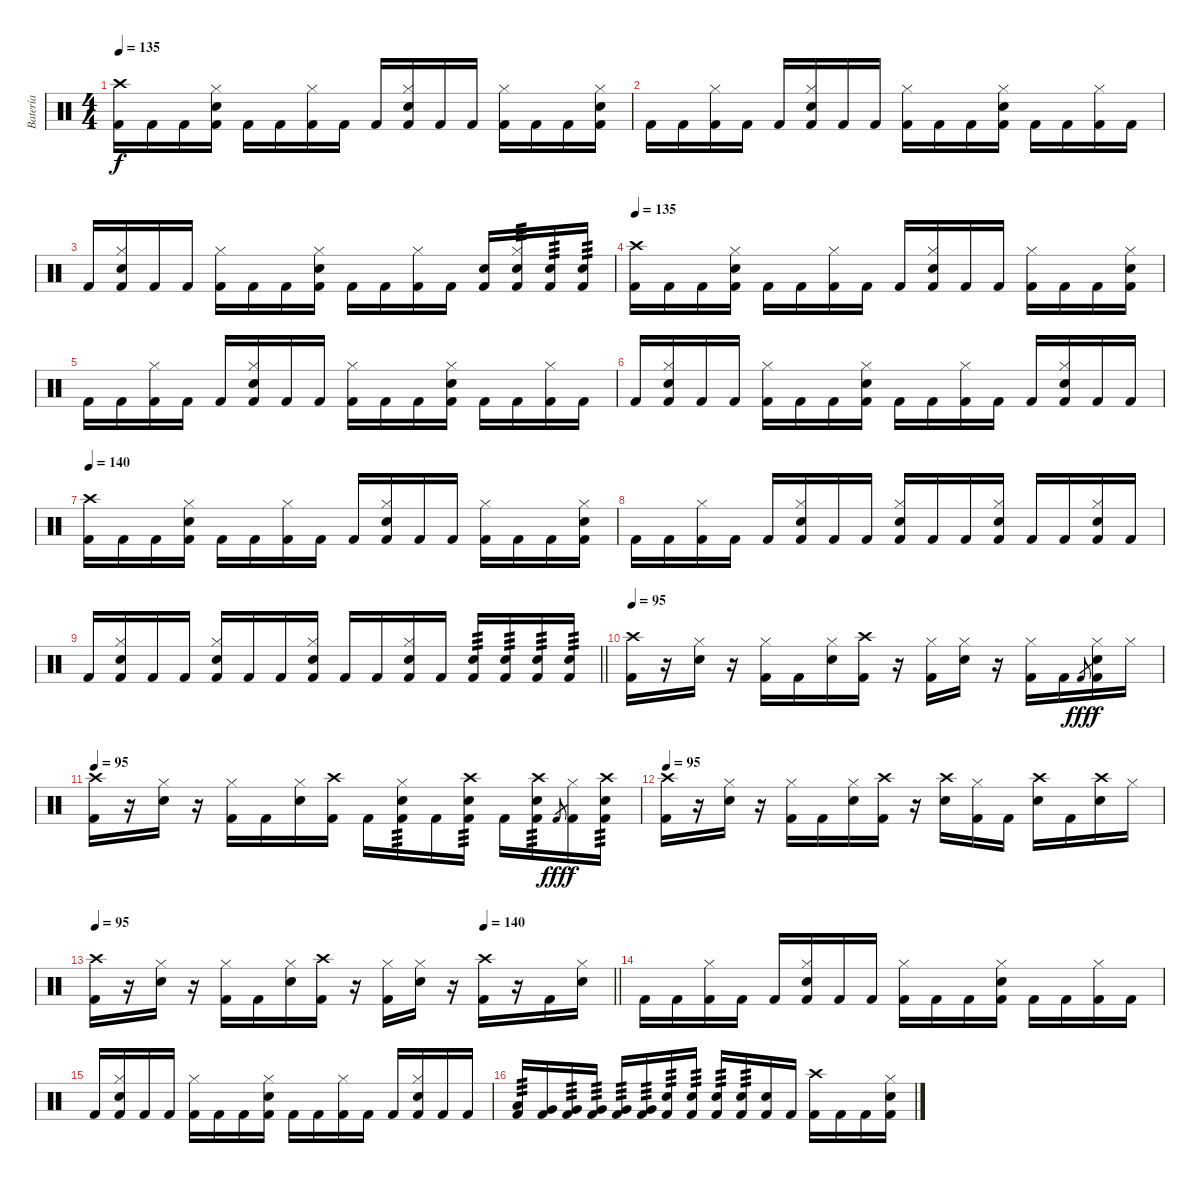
\track ("Batería" "Batería") {instrument percussion}
\staff {score}
\articulation defaults
\ts (4 4)
\tempo 135
\clef neutral
\ks c
("Crash high (hit)" "Kick (hit) 2").16{dy f} "Kick (hit) 2".16 "Kick (hit) 2".16 ("Hi-Hat (closed)" "Snare (hit) 2" "Kick (hit) 2").16 "Kick (hit) 2".16 "Kick (hit) 2".16 ("Hi-Hat (closed)" "Kick (hit) 2").16 "Kick (hit) 2".16 "Kick (hit) 2".16 ("Hi-Hat (closed)" "Snare (hit) 2" "Kick (hit) 2").16 "Kick (hit) 2".16 "Kick (hit) 2".16 ("Hi-Hat (closed)" "Kick (hit) 2").16 "Kick (hit) 2".16 "Kick (hit) 2".16 ("Hi-Hat (closed)" "Snare (hit) 2" "Kick (hit) 2").16 |
"Kick (hit) 2".16 "Kick (hit) 2".16 ("Hi-Hat (closed)" "Kick (hit) 2").16 "Kick (hit) 2".16 "Kick (hit) 2".16 ("Hi-Hat (closed)" "Snare (hit) 2" "Kick (hit) 2").16 "Kick (hit) 2".16 "Kick (hit) 2".16 ("Hi-Hat (closed)" "Kick (hit) 2").16 "Kick (hit) 2".16 "Kick (hit) 2".16 ("Hi-Hat (closed)" "Snare (hit) 2" "Kick (hit) 2").16 "Kick (hit) 2".16 "Kick (hit) 2".16 ("Hi-Hat (closed)" "Kick (hit) 2").16 "Kick (hit) 2".16 |
"Kick (hit) 2".16 ("Hi-Hat (closed)" "Snare (hit) 2" "Kick (hit) 2").16 "Kick (hit) 2".16 "Kick (hit) 2".16 ("Hi-Hat (closed)" "Kick (hit) 2").16 "Kick (hit) 2".16 "Kick (hit) 2".16 ("Hi-Hat (closed)" "Snare (hit) 2" "Kick (hit) 2").16 "Kick (hit) 2".16 "Kick (hit) 2".16 ("Hi-Hat (closed)" "Kick (hit) 2").16 "Kick (hit) 2".16 ("Snare (hit) 2" "Kick (hit) 2").16 ("Hi-Hat (closed)" "Snare (hit) 2" "Kick (hit) 2").16{tp 3} ("Snare (hit) 2" "Kick (hit) 2").16{tp 3} ("Snare (hit) 2" "Kick (hit) 2").16{tp 3} |
\tempo 135
("Crash high (hit)" "Kick (hit) 2").16 "Kick (hit) 2".16 "Kick (hit) 2".16 ("Hi-Hat (closed)" "Snare (hit) 2" "Kick (hit) 2").16 "Kick (hit) 2".16 "Kick (hit) 2".16 ("Hi-Hat (closed)" "Kick (hit) 2").16 "Kick (hit) 2".16 "Kick (hit) 2".16 ("Hi-Hat (closed)" "Snare (hit) 2" "Kick (hit) 2").16 "Kick (hit) 2".16 "Kick (hit) 2".16 ("Hi-Hat (closed)" "Kick (hit) 2").16 "Kick (hit) 2".16 "Kick (hit) 2".16 ("Hi-Hat (closed)" "Snare (hit) 2" "Kick (hit) 2").16 |
"Kick (hit) 2".16 "Kick (hit) 2".16 ("Hi-Hat (closed)" "Kick (hit) 2").16 "Kick (hit) 2".16 "Kick (hit) 2".16 ("Hi-Hat (closed)" "Snare (hit) 2" "Kick (hit) 2").16 "Kick (hit) 2".16 "Kick (hit) 2".16 ("Hi-Hat (closed)" "Kick (hit) 2").16 "Kick (hit) 2".16 "Kick (hit) 2".16 ("Hi-Hat (closed)" "Snare (hit) 2" "Kick (hit) 2").16 "Kick (hit) 2".16 "Kick (hit) 2".16 ("Hi-Hat (closed)" "Kick (hit) 2").16 "Kick (hit) 2".16 |
"Kick (hit) 2".16 ("Hi-Hat (closed)" "Snare (hit) 2" "Kick (hit) 2").16 "Kick (hit) 2".16 "Kick (hit) 2".16 ("Hi-Hat (closed)" "Kick (hit) 2").16 "Kick (hit) 2".16 "Kick (hit) 2".16 ("Hi-Hat (closed)" "Snare (hit) 2" "Kick (hit) 2").16 "Kick (hit) 2".16 "Kick (hit) 2".16 ("Hi-Hat (closed)" "Kick (hit) 2").16 "Kick (hit) 2".16 "Kick (hit) 2".16 ("Hi-Hat (closed)" "Snare (hit) 2" "Kick (hit) 2").16 "Kick (hit) 2".16 "Kick (hit) 2".16 |
\tempo 140
("Crash high (hit)" "Kick (hit) 2").16 "Kick (hit) 2".16 "Kick (hit) 2".16 ("Hi-Hat (closed)" "Snare (hit) 2" "Kick (hit) 2").16 "Kick (hit) 2".16 "Kick (hit) 2".16 ("Hi-Hat (closed)" "Kick (hit) 2").16 "Kick (hit) 2".16 "Kick (hit) 2".16 ("Hi-Hat (closed)" "Snare (hit) 2" "Kick (hit) 2").16 "Kick (hit) 2".16 "Kick (hit) 2".16 ("Hi-Hat (closed)" "Kick (hit) 2").16 "Kick (hit) 2".16 "Kick (hit) 2".16 ("Hi-Hat (closed)" "Snare (hit) 2" "Kick (hit) 2").16 |
"Kick (hit) 2".16 "Kick (hit) 2".16 ("Hi-Hat (closed)" "Kick (hit) 2").16 "Kick (hit) 2".16 "Kick (hit) 2".16 ("Hi-Hat (closed)" "Snare (hit) 2" "Kick (hit) 2").16 "Kick (hit) 2".16 "Kick (hit) 2".16 ("Hi-Hat (closed)" "Snare (hit) 2" "Kick (hit) 2").16 "Kick (hit) 2".16 "Kick (hit) 2".16 ("Hi-Hat (closed)" "Snare (hit) 2" "Kick (hit) 2").16 "Kick (hit) 2".16 "Kick (hit) 2".16 ("Hi-Hat (closed)" "Snare (hit) 2" "Kick (hit) 2").16 "Kick (hit) 2".16 |
\barLineRight lightlight "Kick (hit) 2".16
("Hi-Hat (closed)" "Snare (hit) 2" "Kick (hit) 2").16 "Kick (hit) 2".16 "Kick (hit) 2".16 ("Hi-Hat (closed)" "Snare (hit) 2" "Kick (hit) 2").16 "Kick (hit) 2".16 "Kick (hit) 2".16 ("Hi-Hat (closed)" "Snare (hit) 2" "Kick (hit) 2").16 "Kick (hit) 2".16 "Kick (hit) 2".16 ("Hi-Hat (closed)" "Snare (hit) 2" "Kick (hit) 2").16 "Kick (hit) 2".16 ("Snare (hit) 2" "Kick (hit) 2").16{tp 3} ("Snare (hit) 2" "Kick (hit) 2").16{tp 3} ("Snare (hit) 2" "Kick (hit) 2").16{tp 3} ("Snare (hit) 2" "Kick (hit) 2").16{tp 3} |
\tempo 95
("Crash high (hit)" "Kick (hit) 2").16 r.16 ("Hi-Hat (closed)" "Snare (hit) 2").16 r.16 ("Hi-Hat (closed)" "Kick (hit) 2").16 "Kick (hit) 2".16 ("Hi-Hat (closed)" "Snare (hit) 2").16 ("Crash high (hit)" "Kick (hit) 2").16 r.16 ("Hi-Hat (closed)" "Kick (hit) 2").16 ("Hi-Hat (closed)" "Snare (hit) 2").16 r.16 ("Hi-Hat (closed)" "Kick (hit) 2").16 "Kick (hit) 2".16 "Kick (hit) 2".8{gr dy fff} ("Hi-Hat (closed)" "Snare (hit) 2" "Kick (hit) 2").16{dy f} "Hi-Hat (closed)".16 |
\tempo 95
("Crash high (hit)" "Kick (hit) 2").16 r.16 ("Hi-Hat (closed)" "Snare (hit) 2").16 r.16 ("Hi-Hat (closed)" "Kick (hit) 2").16 "Kick (hit) 2".16 ("Hi-Hat (closed)" "Snare (hit) 2").16 ("Crash high (hit)" "Kick (hit) 2").16 "Kick (hit) 2".16 ("Hi-Hat (closed)" "Snare (hit) 2" "Kick (hit) 2").16{tp 3} "Kick (hit) 2".16 ("Crash high (hit)" "Snare (hit) 2" "Kick (hit) 2").16{tp 3} "Kick (hit) 2".16 ("Crash high (hit)" "Snare (hit) 2" "Kick (hit) 2").16{tp 3} "Kick (hit) 2".8{gr dy fff} ("Hi-Hat (closed)" "Kick (hit) 2").16{dy f} ("Crash high (hit)" "Snare (hit) 2" "Kick (hit) 2").16{tp 3} |
\tempo 95
("Crash high (hit)" "Kick (hit) 2").16 r.16 ("Hi-Hat (closed)" "Snare (hit) 2").16 r.16 ("Hi-Hat (closed)" "Kick (hit) 2").16 "Kick (hit) 2".16 ("Hi-Hat (closed)" "Snare (hit) 2").16 ("Crash high (hit)" "Kick (hit) 2").16 r.16 ("Crash high (hit)" "Snare (hit) 2").16 ("Hi-Hat (closed)" "Kick (hit) 2").16 "Kick (hit) 2".16 ("Crash high (hit)" "Snare (hit) 2").16 "Kick (hit) 2".16 ("Crash high (hit)" "Snare (hit) 2").16 "Hi-Hat (closed)".16 |
\tempo 95
\tempo (140 0.75)
\barLineRight lightlight
("Crash high (hit)" "Kick (hit) 2").16 r.16 ("Hi-Hat (closed)" "Snare (hit) 2").16 r.16 ("Hi-Hat (closed)" "Kick (hit) 2").16 "Kick (hit) 2".16 ("Hi-Hat (closed)" "Snare (hit) 2").16 ("Crash high (hit)" "Kick (hit) 2").16 r.16 ("Hi-Hat (closed)" "Kick (hit) 2").16 ("Hi-Hat (closed)" "Snare (hit) 2").16 r.16 ("Crash high (hit)" "Kick (hit) 2").16 r.16 "Kick (hit) 2".16 ("Hi-Hat (closed)" "Snare (hit) 2").16 |
"Kick (hit) 2".16 "Kick (hit) 2".16 ("Hi-Hat (closed)" "Kick (hit) 2").16 "Kick (hit) 2".16 "Kick (hit) 2".16 ("Hi-Hat (closed)" "Snare (hit) 2" "Kick (hit) 2").16 "Kick (hit) 2".16 "Kick (hit) 2".16 ("Hi-Hat (closed)" "Kick (hit) 2").16 "Kick (hit) 2".16 "Kick (hit) 2".16 ("Hi-Hat (closed)" "Snare (hit) 2" "Kick (hit) 2").16 "Kick (hit) 2".16 "Kick (hit) 2".16 ("Hi-Hat (closed)" "Kick (hit) 2").16 "Kick (hit) 2".16 |
"Kick (hit) 2".16 ("Hi-Hat (closed)" "Snare (hit) 2" "Kick (hit) 2").16 "Kick (hit) 2".16 "Kick (hit) 2".16 ("Hi-Hat (closed)" "Kick (hit) 2").16 "Kick (hit) 2".16 "Kick (hit) 2".16 ("Hi-Hat (closed)" "Snare (hit) 2" "Kick (hit) 2").16 "Kick (hit) 2".16 "Kick (hit) 2".16 ("Hi-Hat (closed)" "Kick (hit) 2").16 "Kick (hit) 2".16 "Kick (hit) 2".16 ("Hi-Hat (closed)" "Snare (hit) 2" "Kick (hit) 2").16 "Kick (hit) 2".16 "Kick (hit) 2".16 |
("Low Tom (hit)" "Kick (hit) 2").16{tp 3} ("Very Low Tom (hit)" "Kick (hit) 2").16 ("Very Low Tom (hit)" "Kick (hit) 2").16{tp 3} ("Very Low Tom (hit)" "Kick (hit) 2").16{tp 3} ("Very Low Tom (hit)" "Kick (hit) 2").16{tp 3} ("Very Low Tom (hit)" "Kick (hit) 2").16{tp 3} ("Snare (hit) 2" "Kick (hit) 2").16{tp 3} ("Snare (hit) 2" "Kick (hit) 2").16{tp 3} ("Snare (hit) 2" "Kick (hit) 2").16{tp 3} ("Snare (hit) 2" "Kick (hit) 2").16{tp 3} ("Snare (hit) 2"{tr (38 64)} "Kick (hit) 2").16 "Kick (hit) 2"{tr (36 64)}.16 ("Crash high (hit)" "Kick (hit) 2").16 "Kick (hit) 2".16 "Kick (hit) 2".16 ("Hi-Hat (closed)" "Snare (hit) 2" "Kick (hit) 2").16
